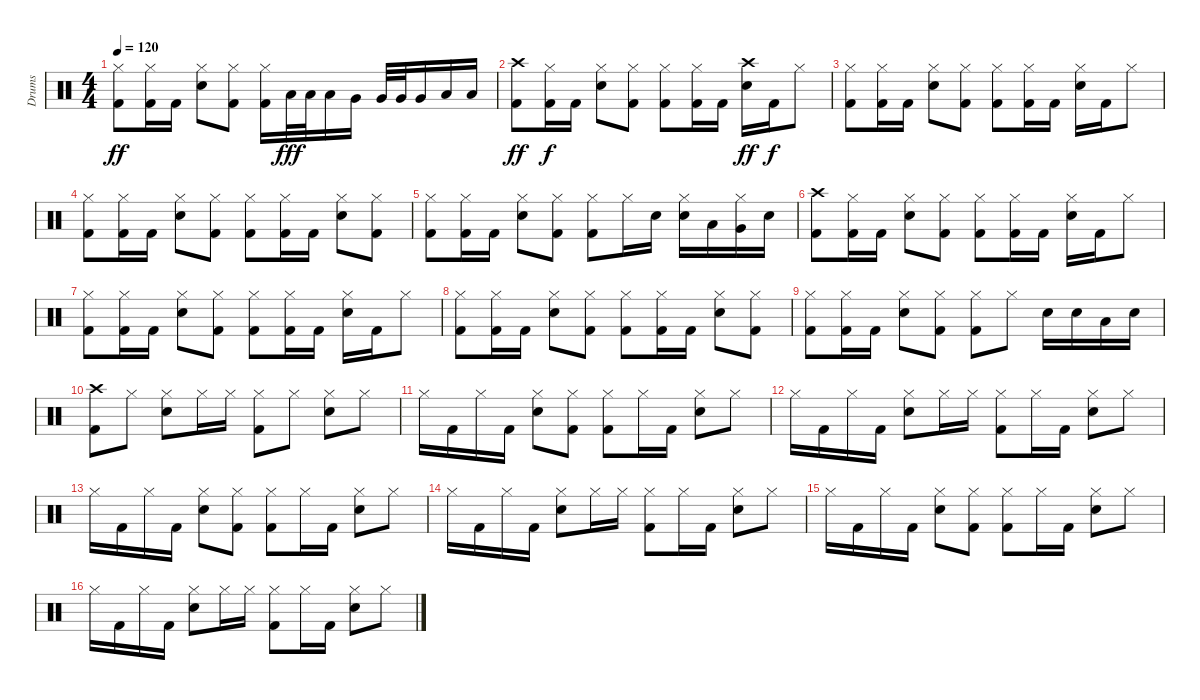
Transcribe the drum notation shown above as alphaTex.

\track ("Drums" "Drums") {instrument percussion}
\staff {score}
\articulation defaults
\ts (4 4)
\tempo 120
\clef neutral
\ks c
("Kick (hit) 2" "Hi-Hat (closed)").8{dy ff} ("Kick (hit) 2" "Hi-Hat (closed)").16 "Kick (hit) 2".16 ("Snare (hit) 2" "Hi-Hat (closed)").8 ("Hi-Hat (closed)" "Kick (hit) 2").8 ("Hi-Hat (closed)" "Kick (hit) 2").16 "Low Tom (hit)".32{dy fff} "Low Tom (hit)".32 "Low Tom (hit)".16 "Very Low Tom (hit)".16 "Very Low Tom (hit)".32 "Very Low Tom (hit)".32 "Very Low Tom (hit)".16 "Low Floor Tom (hit)".16 "Low Floor Tom (hit)".16 |
("Kick (hit) 2" "Crash high (hit)").8{dy ff} ("Kick (hit) 2" "Hi-Hat (closed)").16{dy f} "Kick (hit) 2".16 ("Hi-Hat (closed)" "Snare (hit) 2").8 ("Kick (hit) 2" "Hi-Hat (closed)").8 ("Hi-Hat (closed)" "Kick (hit) 2").8 ("Hi-Hat (closed)" "Kick (hit) 2").16 "Kick (hit) 2".16 ("Snare (hit) 2" "Crash high (hit)").16{dy ff} "Kick (hit) 2".16{dy f} "Hi-Hat (closed)".8 |
("Kick (hit) 2" "Hi-Hat (closed)").8 ("Hi-Hat (closed)" "Kick (hit) 2").16 "Kick (hit) 2".16 ("Hi-Hat (closed)" "Snare (hit) 2").8 ("Hi-Hat (closed)" "Kick (hit) 2").8 ("Kick (hit) 2" "Hi-Hat (closed)").8 ("Kick (hit) 2" "Hi-Hat (closed)").16 "Kick (hit) 2".16 ("Snare (hit) 2" "Hi-Hat (closed)").16 "Kick (hit) 2".16 "Hi-Hat (closed)".8 |
("Kick (hit) 2" "Hi-Hat (closed)").8 ("Kick (hit) 2" "Hi-Hat (closed)").16 "Kick (hit) 2".16 ("Hi-Hat (closed)" "Snare (hit) 2").8 ("Hi-Hat (closed)" "Kick (hit) 2").8 ("Kick (hit) 2" "Hi-Hat (closed)").8 ("Kick (hit) 2" "Hi-Hat (closed)").16 "Kick (hit) 2".16 ("Hi-Hat (closed)" "Snare (hit) 2").8 ("Hi-Hat (closed)" "Kick (hit) 2").8 |
("Hi-Hat (closed)" "Kick (hit) 2").8 ("Kick (hit) 2" "Hi-Hat (closed)").16 "Kick (hit) 2".16 ("Hi-Hat (closed)" "Snare (hit) 2").8 ("Hi-Hat (closed)" "Kick (hit) 2").8 ("Hi-Hat (closed)" "Kick (hit) 2").8 "Hi-Hat (closed)".16 "Snare (hit) 2".16 ("Snare (hit) 2" "Hi-Hat (closed)").16 "Low Tom (hit)".16 ("Hi-Hat (closed)" "Very Low Tom (hit)").16 "Snare (hit) 2".16 |
("Crash high (hit)" "Kick (hit) 2").8 ("Hi-Hat (closed)" "Kick (hit) 2").16 "Kick (hit) 2".16 ("Snare (hit) 2" "Hi-Hat (closed)").8 ("Hi-Hat (closed)" "Kick (hit) 2").8 ("Hi-Hat (closed)" "Kick (hit) 2").8 ("Kick (hit) 2" "Hi-Hat (closed)").16 "Kick (hit) 2".16 ("Snare (hit) 2" "Hi-Hat (closed)").16 "Kick (hit) 2".16 "Hi-Hat (closed)".8 |
("Hi-Hat (closed)" "Kick (hit) 2").8 ("Hi-Hat (closed)" "Kick (hit) 2").16 "Kick (hit) 2".16 ("Hi-Hat (closed)" "Snare (hit) 2").8 ("Kick (hit) 2" "Hi-Hat (closed)").8 ("Hi-Hat (closed)" "Kick (hit) 2").8 ("Kick (hit) 2" "Hi-Hat (closed)").16 "Kick (hit) 2".16 ("Hi-Hat (closed)" "Snare (hit) 2").16 "Kick (hit) 2".16 "Hi-Hat (closed)".8 |
("Kick (hit) 2" "Hi-Hat (closed)").8 ("Kick (hit) 2" "Hi-Hat (closed)").16 "Kick (hit) 2".16 ("Snare (hit) 2" "Hi-Hat (closed)").8 ("Hi-Hat (closed)" "Kick (hit) 2").8 ("Kick (hit) 2" "Hi-Hat (closed)").8 ("Hi-Hat (closed)" "Kick (hit) 2").16 "Kick (hit) 2".16 ("Snare (hit) 2" "Hi-Hat (closed)").8 ("Hi-Hat (closed)" "Kick (hit) 2").8 |
("Kick (hit) 2" "Hi-Hat (closed)").8 ("Hi-Hat (closed)" "Kick (hit) 2").16 "Kick (hit) 2".16 ("Hi-Hat (closed)" "Snare (hit) 2").8 ("Hi-Hat (closed)" "Kick (hit) 2").8 ("Kick (hit) 2" "Hi-Hat (closed)").8 "Hi-Hat (closed)".8 "Snare (hit) 2".16 "Snare (hit) 2".16 "Low Tom (hit)".16 "Snare (hit) 2".16 |
("Crash high (hit)" "Kick (hit) 2").8 "Hi-Hat (closed)".8 ("Snare (hit) 2" "Hi-Hat (closed)").8 "Hi-Hat (closed)".16 "Hi-Hat (closed)".16 ("Kick (hit) 2" "Hi-Hat (closed)").8 "Hi-Hat (closed)".8 ("Hi-Hat (closed)" "Snare (hit) 2").8 "Hi-Hat (closed)".8 |
"Hi-Hat (closed)".16 "Kick (hit) 2".16 "Hi-Hat (closed)".16 "Kick (hit) 2".16 ("Hi-Hat (closed)" "Snare (hit) 2").8 ("Kick (hit) 2" "Hi-Hat (closed)").8 ("Hi-Hat (closed)" "Kick (hit) 2").8 "Hi-Hat (closed)".16 "Kick (hit) 2".16 ("Snare (hit) 2" "Hi-Hat (closed)").8 "Hi-Hat (closed)".8 |
"Hi-Hat (closed)".16 "Kick (hit) 2".16 "Hi-Hat (closed)".16 "Kick (hit) 2".16 ("Hi-Hat (closed)" "Snare (hit) 2").8 "Hi-Hat (closed)".16 "Hi-Hat (closed)".16 ("Kick (hit) 2" "Hi-Hat (closed)").8 "Hi-Hat (closed)".16 "Kick (hit) 2".16 ("Hi-Hat (closed)" "Snare (hit) 2").8 "Hi-Hat (closed)".8 |
"Hi-Hat (closed)".16 "Kick (hit) 2".16 "Hi-Hat (closed)".16 "Kick (hit) 2".16 ("Snare (hit) 2" "Hi-Hat (closed)").8 ("Hi-Hat (closed)" "Kick (hit) 2").8 ("Kick (hit) 2" "Hi-Hat (closed)").8 "Hi-Hat (closed)".16 "Kick (hit) 2".16 ("Snare (hit) 2" "Hi-Hat (closed)").8 "Hi-Hat (closed)".8 |
"Hi-Hat (closed)".16 "Kick (hit) 2".16 "Hi-Hat (closed)".16 "Kick (hit) 2".16 ("Snare (hit) 2" "Hi-Hat (closed)").8 "Hi-Hat (closed)".16 "Hi-Hat (closed)".16 ("Hi-Hat (closed)" "Kick (hit) 2").8 "Hi-Hat (closed)".16 "Kick (hit) 2".16 ("Snare (hit) 2" "Hi-Hat (closed)").8 "Hi-Hat (closed)".8 |
"Hi-Hat (closed)".16 "Kick (hit) 2".16 "Hi-Hat (closed)".16 "Kick (hit) 2".16 ("Hi-Hat (closed)" "Snare (hit) 2").8 ("Hi-Hat (closed)" "Kick (hit) 2").8 ("Kick (hit) 2" "Hi-Hat (closed)").8 "Hi-Hat (closed)".16 "Kick (hit) 2".16 ("Snare (hit) 2" "Hi-Hat (closed)").8 "Hi-Hat (closed)".8 |
"Hi-Hat (closed)".16 "Kick (hit) 2".16 "Hi-Hat (closed)".16 "Kick (hit) 2".16 ("Hi-Hat (closed)" "Snare (hit) 2").8 "Hi-Hat (closed)".16 "Hi-Hat (closed)".16 ("Hi-Hat (closed)" "Kick (hit) 2").8 "Hi-Hat (closed)".16 "Kick (hit) 2".16 ("Hi-Hat (closed)" "Snare (hit) 2").8 "Hi-Hat (closed)".8
